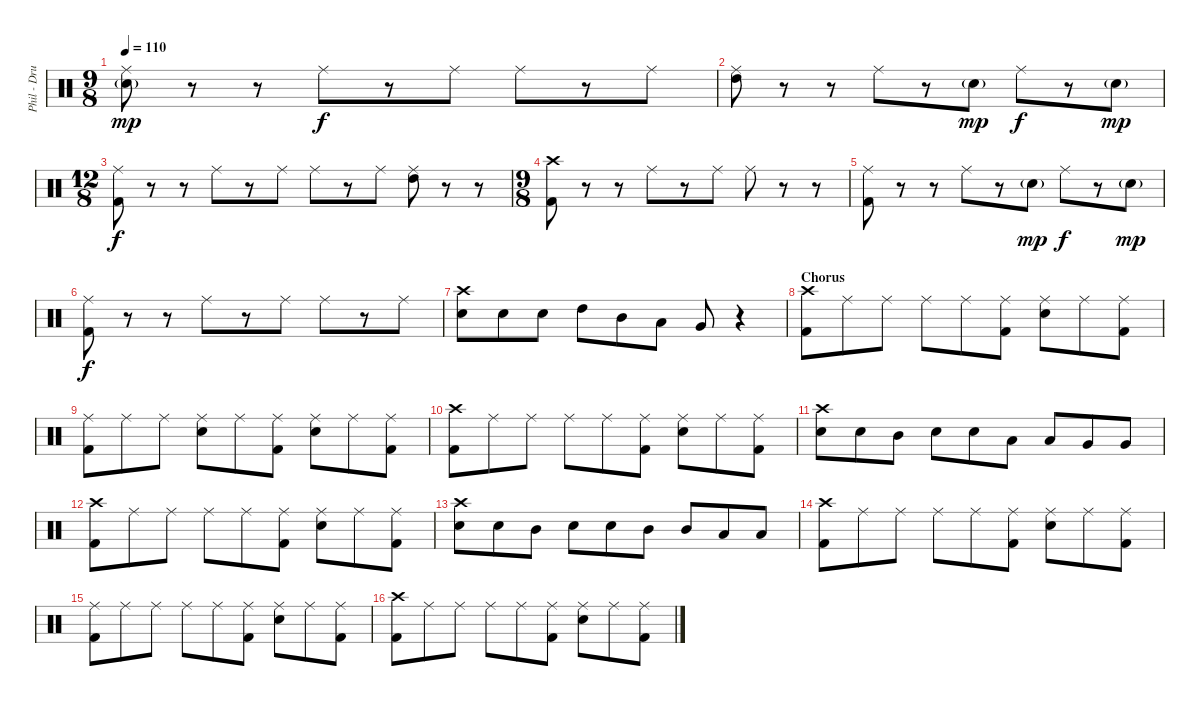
\track ("Phil - Drums" "Phil - Dru") {instrument percussion}
\staff {score}
\articulation defaults
\ts (9 8)
\tempo 110
\clef neutral
\ks c
("Ride (middle)" "Electric Snare (hit)"{g}).8{dy mp} r.8 r.8 "Ride (middle)".8{dy f} r.8 "Ride (middle)".8 "Ride (middle)".8 r.8 "Ride (middle)".8 |
("Ride (middle)" "High Tom (hit)").8 r.8 r.8 "Ride (middle)".8 r.8 "Electric Snare (hit)"{g}.8{dy mp} "Ride (middle)".8{dy f} r.8 "Electric Snare (hit)"{g}.8{dy mp} |
\ts (12 8)
("Ride (middle)" "Kick (hit) 2").8{dy f} r.8 r.8 "Ride (middle)".8 r.8 "Ride (middle)".8 "Ride (middle)".8 r.8 "Ride (middle)".8 ("Ride (middle)" "High Tom (hit)").8 r.8 r.8 |
\ts (9 8)
("Crash high (hit)" "Kick (hit) 2").8 r.8 r.8 "Ride (middle)".8 r.8 "Ride (middle)".8 "Ride (middle)".8 r.8 r.8 |
("Ride (middle)" "Kick (hit) 2").8 r.8 r.8 "Ride (middle)".8 r.8 "Electric Snare (hit)"{g}.8{dy mp} "Ride (middle)".8{dy f} r.8 "Electric Snare (hit)"{g}.8{dy mp} |
("Ride (middle)" "Kick (hit) 2").8{dy f} r.8 r.8 "Ride (middle)".8 r.8 "Ride (middle)".8 "Ride (middle)".8 r.8 "Ride (middle)".8 |
("Crash high (hit)" "Snare (hit) 2").8 "Electric Snare (hit)".8 "Electric Snare (hit)".8 "High Tom (hit)".8 "Mid Tom (hit)".8 "Low Tom (hit)".8 "Very Low Tom (hit)".8 r.4 |
\section ("" "Chorus")
("Crash high (hit)" "Kick (hit) 2").8 "Ride (middle)".8 "Ride (middle)".8 "Ride (middle)".8 "Ride (middle)".8 ("Ride (middle)" "Kick (hit) 2").8 ("Ride (middle)" "Electric Snare (hit)").8 "Ride (middle)".8 ("Ride (middle)" "Kick (hit) 2").8 |
("Ride (middle)" "Kick (hit) 2").8 "Ride (middle)".8 "Ride (middle)".8 ("Ride (middle)" "Electric Snare (hit)").8 "Ride (middle)".8 ("Ride (middle)" "Kick (hit) 2").8 ("Ride (middle)" "Electric Snare (hit)").8 "Ride (middle)".8 ("Ride (middle)" "Kick (hit) 2").8 |
("Crash high (hit)" "Kick (hit) 2").8 "Ride (middle)".8 "Ride (middle)".8 "Ride (middle)".8 "Ride (middle)".8 ("Ride (middle)" "Kick (hit) 2").8 ("Ride (middle)" "Electric Snare (hit)").8 "Ride (middle)".8 ("Ride (middle)" "Kick (hit) 2").8 |
("Crash high (hit)" "Electric Snare (hit)").8 "Electric Snare (hit)".8 "Mid Tom (hit)".8 "Snare (hit) 2".8 "Snare (hit) 2".8 "Low Tom (hit)".8 "Low Tom (hit)".8 "Very Low Tom (hit)".8 "Very Low Tom (hit)".8 |
("Crash high (hit)" "Kick (hit) 2").8 "Ride (middle)".8 "Ride (middle)".8 "Ride (middle)".8 "Ride (middle)".8 ("Ride (middle)" "Kick (hit) 2").8 ("Ride (middle)" "Electric Snare (hit)").8 "Ride (middle)".8 ("Ride (middle)" "Kick (hit) 2").8 |
("Crash high (hit)" "Electric Snare (hit)").8 "Electric Snare (hit)".8 "Mid Tom (hit)".8 "Snare (hit) 2".8 "Snare (hit) 2".8 "Mid Tom (hit)".8 "Mid Tom (hit)".8 "Low Tom (hit)".8 "Low Tom (hit)".8 |
("Crash high (hit)" "Kick (hit) 2").8 "Ride (middle)".8 "Ride (middle)".8 "Ride (middle)".8 "Ride (middle)".8 ("Ride (middle)" "Kick (hit) 2").8 ("Ride (middle)" "Electric Snare (hit)").8 "Ride (middle)".8 ("Ride (middle)" "Kick (hit) 2").8 |
("Ride (middle)" "Kick (hit) 2").8 "Ride (middle)".8 "Ride (middle)".8 "Ride (middle)".8 "Ride (middle)".8 ("Ride (middle)" "Kick (hit) 2").8 ("Ride (middle)" "Electric Snare (hit)").8 "Ride (middle)".8 ("Ride (middle)" "Kick (hit) 2").8 |
("Crash high (hit)" "Kick (hit) 2").8 "Ride (middle)".8 "Ride (middle)".8 "Ride (middle)".8 "Ride (middle)".8 ("Ride (middle)" "Kick (hit) 2").8 ("Ride (middle)" "Electric Snare (hit)").8 "Ride (middle)".8 ("Ride (middle)" "Kick (hit) 2").8
